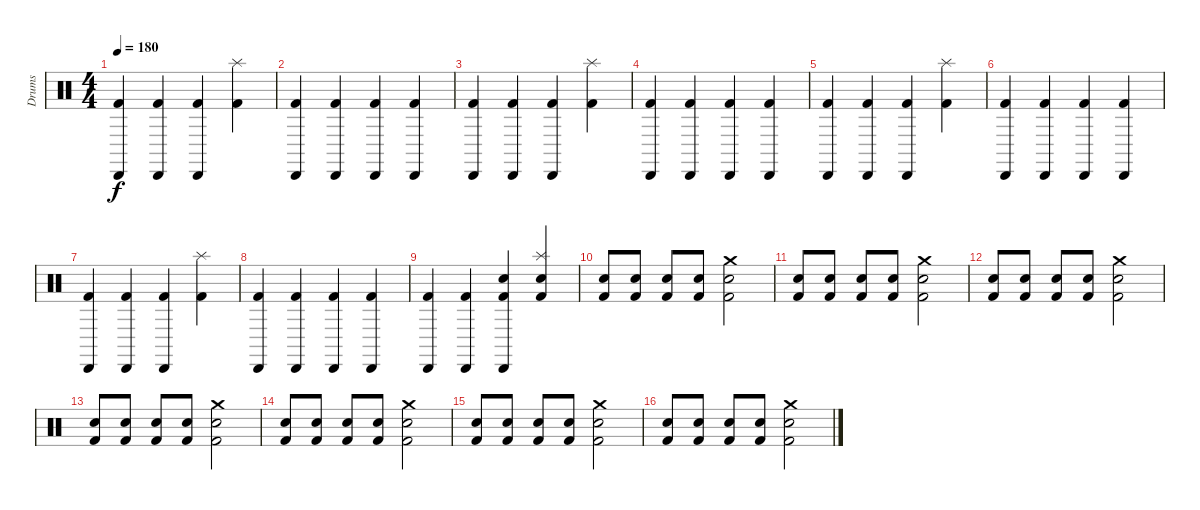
\track ("Drums" "Drums") {instrument percussion}
\staff {score}
\articulation defaults
\ts (4 4)
\tempo 180
\clef neutral
\ks c
("Cabasa (hit)" "Kick (hit) 2").4{dy f} ("Cabasa (hit)" "Kick (hit) 2").4 ("Cabasa (hit)" "Kick (hit) 2").4 ("Splash (hit)" "Kick (hit) 2").4 |
("Cabasa (hit)" "Kick (hit) 2").4 ("Cabasa (hit)" "Kick (hit) 2").4 ("Cabasa (hit)" "Kick (hit) 2").4 ("Cabasa (hit)" "Kick (hit) 2").4 |
("Cabasa (hit)" "Kick (hit) 2").4 ("Cabasa (hit)" "Kick (hit) 2").4 ("Cabasa (hit)" "Kick (hit) 2").4 ("Splash (hit)" "Kick (hit) 2").4 |
("Cabasa (hit)" "Kick (hit) 2").4 ("Cabasa (hit)" "Kick (hit) 2").4 ("Cabasa (hit)" "Kick (hit) 2").4 ("Cabasa (hit)" "Kick (hit) 2").4 |
("Cabasa (hit)" "Kick (hit) 2").4 ("Cabasa (hit)" "Kick (hit) 2").4 ("Cabasa (hit)" "Kick (hit) 2").4 ("Splash (hit)" "Kick (hit) 2").4 |
("Cabasa (hit)" "Kick (hit) 2").4 ("Cabasa (hit)" "Kick (hit) 2").4 ("Cabasa (hit)" "Kick (hit) 2").4 ("Cabasa (hit)" "Kick (hit) 2").4 |
("Cabasa (hit)" "Kick (hit) 2").4 ("Cabasa (hit)" "Kick (hit) 2").4 ("Cabasa (hit)" "Kick (hit) 2").4 ("Splash (hit)" "Kick (hit) 2").4 |
("Cabasa (hit)" "Kick (hit) 2").4 ("Cabasa (hit)" "Kick (hit) 2").4 ("Cabasa (hit)" "Kick (hit) 2").4 ("Cabasa (hit)" "Kick (hit) 2").4 |
("Cabasa (hit)" "Kick (hit) 2").4 ("Cabasa (hit)" "Kick (hit) 2").4 ("Cabasa (hit)" "Kick (hit) 2" "Snare (hit) 2").4 ("Splash (hit)" "Kick (hit) 2" "Snare (hit) 2").4 |
("Snare (hit) 2" "Kick (hit) 2").8 ("Snare (hit) 2" "Kick (hit) 2").8 ("Snare (hit) 2" "Kick (hit) 2").8 ("Snare (hit) 2" "Kick (hit) 2").8 ("Snare (hit) 2" "Crash medium (hit)" "Kick (hit) 2").2 |
("Snare (hit) 2" "Kick (hit) 2").8 ("Snare (hit) 2" "Kick (hit) 2").8 ("Snare (hit) 2" "Kick (hit) 2").8 ("Snare (hit) 2" "Kick (hit) 2").8 ("Snare (hit) 2" "Crash medium (hit)" "Kick (hit) 2").2 |
("Snare (hit) 2" "Kick (hit) 2").8 ("Snare (hit) 2" "Kick (hit) 2").8 ("Snare (hit) 2" "Kick (hit) 2").8 ("Snare (hit) 2" "Kick (hit) 2").8 ("Snare (hit) 2" "Crash medium (hit)" "Kick (hit) 2").2 |
("Snare (hit) 2" "Kick (hit) 2").8 ("Snare (hit) 2" "Kick (hit) 2").8 ("Snare (hit) 2" "Kick (hit) 2").8 ("Snare (hit) 2" "Kick (hit) 2").8 ("Snare (hit) 2" "Crash medium (hit)" "Kick (hit) 2").2 |
("Snare (hit) 2" "Kick (hit) 2").8 ("Snare (hit) 2" "Kick (hit) 2").8 ("Snare (hit) 2" "Kick (hit) 2").8 ("Snare (hit) 2" "Kick (hit) 2").8 ("Snare (hit) 2" "Crash medium (hit)" "Kick (hit) 2").2 |
("Snare (hit) 2" "Kick (hit) 2").8 ("Snare (hit) 2" "Kick (hit) 2").8 ("Snare (hit) 2" "Kick (hit) 2").8 ("Snare (hit) 2" "Kick (hit) 2").8 ("Snare (hit) 2" "Crash medium (hit)" "Kick (hit) 2").2 |
("Snare (hit) 2" "Kick (hit) 2").8 ("Snare (hit) 2" "Kick (hit) 2").8 ("Snare (hit) 2" "Kick (hit) 2").8 ("Snare (hit) 2" "Kick (hit) 2").8 ("Snare (hit) 2" "Crash medium (hit)" "Kick (hit) 2").2
